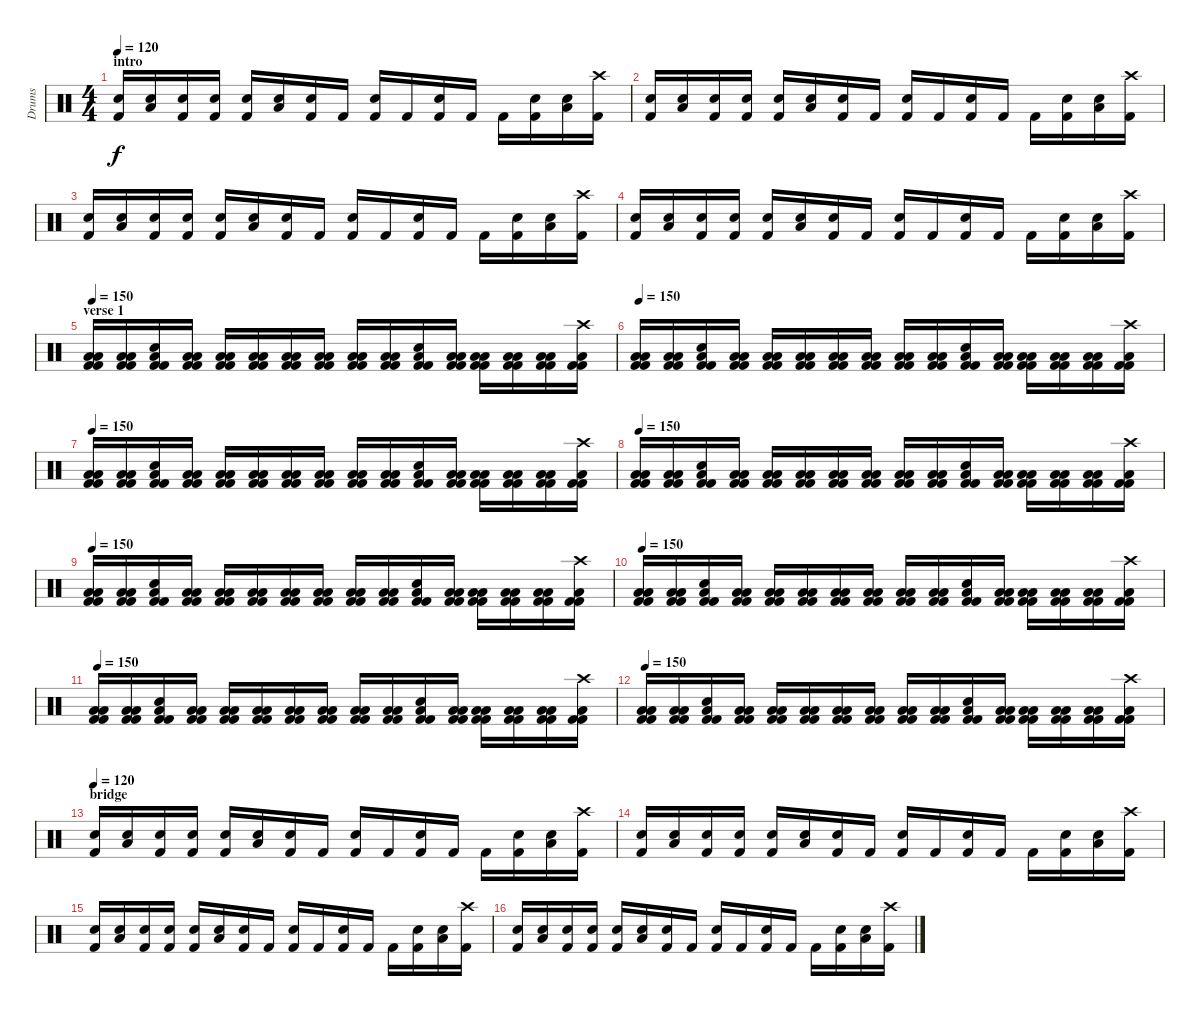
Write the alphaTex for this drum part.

\track ("Drums" "Drums") {instrument percussion}
\staff {score}
\articulation defaults
\ts (4 4)
\section ("" "intro")
\tempo 120
\clef neutral
\ks c
("Snare (hit) 2" "Kick (hit) 2").16{dy f} ("Snare (hit) 2" "Low Tom (hit)").16 ("Snare (hit) 2" "Kick (hit) 2").16 ("Snare (hit) 2" "Kick (hit) 2").16 ("Snare (hit) 2" "Kick (hit) 2").16 ("Snare (hit) 2" "Low Tom (hit)").16 ("Snare (hit) 2" "Kick (hit) 2").16 "Kick (hit) 2".16 ("Kick (hit) 2" "Snare (hit) 2").16 "Kick (hit) 2".16 ("Kick (hit) 2" "Snare (hit) 2").16 "Kick (hit) 2".16 "Kick (hit) 2".16 ("Kick (hit) 2" "Snare (hit) 2").16 ("Snare (hit) 2" "Low Tom (hit)").16 ("Kick (hit) 2" "Crash high (hit)").16 |
("Snare (hit) 2" "Kick (hit) 2").16 ("Snare (hit) 2" "Low Tom (hit)").16 ("Snare (hit) 2" "Kick (hit) 2").16 ("Snare (hit) 2" "Kick (hit) 2").16 ("Snare (hit) 2" "Kick (hit) 2").16 ("Snare (hit) 2" "Low Tom (hit)").16 ("Snare (hit) 2" "Kick (hit) 2").16 "Kick (hit) 2".16 ("Kick (hit) 2" "Snare (hit) 2").16 "Kick (hit) 2".16 ("Kick (hit) 2" "Snare (hit) 2").16 "Kick (hit) 2".16 "Kick (hit) 2".16 ("Kick (hit) 2" "Snare (hit) 2").16 ("Snare (hit) 2" "Low Tom (hit)").16 ("Kick (hit) 2" "Crash high (hit)").16 |
("Snare (hit) 2" "Kick (hit) 2").16 ("Snare (hit) 2" "Low Tom (hit)").16 ("Snare (hit) 2" "Kick (hit) 2").16 ("Snare (hit) 2" "Kick (hit) 2").16 ("Snare (hit) 2" "Kick (hit) 2").16 ("Snare (hit) 2" "Low Tom (hit)").16 ("Snare (hit) 2" "Kick (hit) 2").16 "Kick (hit) 2".16 ("Kick (hit) 2" "Snare (hit) 2").16 "Kick (hit) 2".16 ("Kick (hit) 2" "Snare (hit) 2").16 "Kick (hit) 2".16 "Kick (hit) 2".16 ("Kick (hit) 2" "Snare (hit) 2").16 ("Snare (hit) 2" "Low Tom (hit)").16 ("Kick (hit) 2" "Crash high (hit)").16 |
("Snare (hit) 2" "Kick (hit) 2").16 ("Snare (hit) 2" "Low Tom (hit)").16 ("Snare (hit) 2" "Kick (hit) 2").16 ("Snare (hit) 2" "Kick (hit) 2").16 ("Snare (hit) 2" "Kick (hit) 2").16 ("Snare (hit) 2" "Low Tom (hit)").16 ("Snare (hit) 2" "Kick (hit) 2").16 "Kick (hit) 2".16 ("Kick (hit) 2" "Snare (hit) 2").16 "Kick (hit) 2".16 ("Kick (hit) 2" "Snare (hit) 2").16 "Kick (hit) 2".16 "Kick (hit) 2".16 ("Kick (hit) 2" "Snare (hit) 2").16 ("Snare (hit) 2" "Low Tom (hit)").16 ("Kick (hit) 2" "Crash high (hit)").16 |
\section ("" "verse 1")
\tempo 150
("Kick (hit) 2" "Kick (hit) 2" "Low Tom (hit)" "Low Tom (hit)").16 ("Kick (hit) 2" "Kick (hit) 2" "Low Tom (hit)" "Low Tom (hit)").16 ("Kick (hit) 2" "Kick (hit) 2" "Snare (hit) 2" "Low Tom (hit)").16 ("Kick (hit) 2" "Kick (hit) 2" "Low Tom (hit)" "Low Tom (hit)").16 ("Kick (hit) 2" "Kick (hit) 2" "Low Tom (hit)" "Low Tom (hit)").16 ("Kick (hit) 2" "Kick (hit) 2" "Low Tom (hit)" "Low Tom (hit)").16 ("Kick (hit) 2" "Kick (hit) 2" "Low Tom (hit)" "Low Tom (hit)").16 ("Kick (hit) 2" "Kick (hit) 2" "Low Tom (hit)" "Low Tom (hit)").16 ("Kick (hit) 2" "Kick (hit) 2" "Low Tom (hit)" "Low Tom (hit)").16 ("Kick (hit) 2" "Kick (hit) 2" "Low Tom (hit)" "Low Tom (hit)").16 ("Kick (hit) 2" "Kick (hit) 2" "Snare (hit) 2" "Low Tom (hit)").16 ("Kick (hit) 2" "Kick (hit) 2" "Low Tom (hit)" "Low Tom (hit)").16 ("Kick (hit) 2" "Kick (hit) 2" "Low Tom (hit)" "Low Tom (hit)").16 ("Kick (hit) 2" "Kick (hit) 2" "Low Tom (hit)" "Low Tom (hit)").16 ("Kick (hit) 2" "Kick (hit) 2" "Low Tom (hit)" "Low Tom (hit)").16 ("Kick (hit) 2" "Kick (hit) 2" "Crash high (hit)" "Low Tom (hit)").16 |
\tempo 150
("Kick (hit) 2" "Kick (hit) 2" "Low Tom (hit)" "Low Tom (hit)").16 ("Kick (hit) 2" "Kick (hit) 2" "Low Tom (hit)" "Low Tom (hit)").16 ("Kick (hit) 2" "Kick (hit) 2" "Snare (hit) 2" "Low Tom (hit)").16 ("Kick (hit) 2" "Kick (hit) 2" "Low Tom (hit)" "Low Tom (hit)").16 ("Kick (hit) 2" "Kick (hit) 2" "Low Tom (hit)" "Low Tom (hit)").16 ("Kick (hit) 2" "Kick (hit) 2" "Low Tom (hit)" "Low Tom (hit)").16 ("Kick (hit) 2" "Kick (hit) 2" "Low Tom (hit)" "Low Tom (hit)").16 ("Kick (hit) 2" "Kick (hit) 2" "Low Tom (hit)" "Low Tom (hit)").16 ("Kick (hit) 2" "Kick (hit) 2" "Low Tom (hit)" "Low Tom (hit)").16 ("Kick (hit) 2" "Kick (hit) 2" "Low Tom (hit)" "Low Tom (hit)").16 ("Kick (hit) 2" "Kick (hit) 2" "Snare (hit) 2" "Low Tom (hit)").16 ("Kick (hit) 2" "Kick (hit) 2" "Low Tom (hit)" "Low Tom (hit)").16 ("Kick (hit) 2" "Kick (hit) 2" "Low Tom (hit)" "Low Tom (hit)").16 ("Kick (hit) 2" "Kick (hit) 2" "Low Tom (hit)" "Low Tom (hit)").16 ("Kick (hit) 2" "Kick (hit) 2" "Low Tom (hit)" "Low Tom (hit)").16 ("Kick (hit) 2" "Kick (hit) 2" "Crash high (hit)" "Low Tom (hit)").16 |
\tempo 150
("Kick (hit) 2" "Kick (hit) 2" "Low Tom (hit)" "Low Tom (hit)").16 ("Kick (hit) 2" "Kick (hit) 2" "Low Tom (hit)" "Low Tom (hit)").16 ("Kick (hit) 2" "Kick (hit) 2" "Snare (hit) 2" "Low Tom (hit)").16 ("Kick (hit) 2" "Kick (hit) 2" "Low Tom (hit)" "Low Tom (hit)").16 ("Kick (hit) 2" "Kick (hit) 2" "Low Tom (hit)" "Low Tom (hit)").16 ("Kick (hit) 2" "Kick (hit) 2" "Low Tom (hit)" "Low Tom (hit)").16 ("Kick (hit) 2" "Kick (hit) 2" "Low Tom (hit)" "Low Tom (hit)").16 ("Kick (hit) 2" "Kick (hit) 2" "Low Tom (hit)" "Low Tom (hit)").16 ("Kick (hit) 2" "Kick (hit) 2" "Low Tom (hit)" "Low Tom (hit)").16 ("Kick (hit) 2" "Kick (hit) 2" "Low Tom (hit)" "Low Tom (hit)").16 ("Kick (hit) 2" "Kick (hit) 2" "Snare (hit) 2" "Low Tom (hit)").16 ("Kick (hit) 2" "Kick (hit) 2" "Low Tom (hit)" "Low Tom (hit)").16 ("Kick (hit) 2" "Kick (hit) 2" "Low Tom (hit)" "Low Tom (hit)").16 ("Kick (hit) 2" "Kick (hit) 2" "Low Tom (hit)" "Low Tom (hit)").16 ("Kick (hit) 2" "Kick (hit) 2" "Low Tom (hit)" "Low Tom (hit)").16 ("Kick (hit) 2" "Kick (hit) 2" "Crash high (hit)" "Low Tom (hit)").16 |
\tempo 150
("Kick (hit) 2" "Kick (hit) 2" "Low Tom (hit)" "Low Tom (hit)").16 ("Kick (hit) 2" "Kick (hit) 2" "Low Tom (hit)" "Low Tom (hit)").16 ("Kick (hit) 2" "Kick (hit) 2" "Snare (hit) 2" "Low Tom (hit)").16 ("Kick (hit) 2" "Kick (hit) 2" "Low Tom (hit)" "Low Tom (hit)").16 ("Kick (hit) 2" "Kick (hit) 2" "Low Tom (hit)" "Low Tom (hit)").16 ("Kick (hit) 2" "Kick (hit) 2" "Low Tom (hit)" "Low Tom (hit)").16 ("Kick (hit) 2" "Kick (hit) 2" "Low Tom (hit)" "Low Tom (hit)").16 ("Kick (hit) 2" "Kick (hit) 2" "Low Tom (hit)" "Low Tom (hit)").16 ("Kick (hit) 2" "Kick (hit) 2" "Low Tom (hit)" "Low Tom (hit)").16 ("Kick (hit) 2" "Kick (hit) 2" "Low Tom (hit)" "Low Tom (hit)").16 ("Kick (hit) 2" "Kick (hit) 2" "Snare (hit) 2" "Low Tom (hit)").16 ("Kick (hit) 2" "Kick (hit) 2" "Low Tom (hit)" "Low Tom (hit)").16 ("Kick (hit) 2" "Kick (hit) 2" "Low Tom (hit)" "Low Tom (hit)").16 ("Kick (hit) 2" "Kick (hit) 2" "Low Tom (hit)" "Low Tom (hit)").16 ("Kick (hit) 2" "Kick (hit) 2" "Low Tom (hit)" "Low Tom (hit)").16 ("Kick (hit) 2" "Kick (hit) 2" "Crash high (hit)" "Low Tom (hit)").16 |
\tempo 150
("Kick (hit) 2" "Kick (hit) 2" "Low Tom (hit)" "Low Tom (hit)").16 ("Kick (hit) 2" "Kick (hit) 2" "Low Tom (hit)" "Low Tom (hit)").16 ("Kick (hit) 2" "Kick (hit) 2" "Snare (hit) 2" "Low Tom (hit)").16 ("Kick (hit) 2" "Kick (hit) 2" "Low Tom (hit)" "Low Tom (hit)").16 ("Kick (hit) 2" "Kick (hit) 2" "Low Tom (hit)" "Low Tom (hit)").16 ("Kick (hit) 2" "Kick (hit) 2" "Low Tom (hit)" "Low Tom (hit)").16 ("Kick (hit) 2" "Kick (hit) 2" "Low Tom (hit)" "Low Tom (hit)").16 ("Kick (hit) 2" "Kick (hit) 2" "Low Tom (hit)" "Low Tom (hit)").16 ("Kick (hit) 2" "Kick (hit) 2" "Low Tom (hit)" "Low Tom (hit)").16 ("Kick (hit) 2" "Kick (hit) 2" "Low Tom (hit)" "Low Tom (hit)").16 ("Kick (hit) 2" "Kick (hit) 2" "Snare (hit) 2" "Low Tom (hit)").16 ("Kick (hit) 2" "Kick (hit) 2" "Low Tom (hit)" "Low Tom (hit)").16 ("Kick (hit) 2" "Kick (hit) 2" "Low Tom (hit)" "Low Tom (hit)").16 ("Kick (hit) 2" "Kick (hit) 2" "Low Tom (hit)" "Low Tom (hit)").16 ("Kick (hit) 2" "Kick (hit) 2" "Low Tom (hit)" "Low Tom (hit)").16 ("Kick (hit) 2" "Kick (hit) 2" "Crash high (hit)" "Low Tom (hit)").16 |
\tempo 150
("Kick (hit) 2" "Kick (hit) 2" "Low Tom (hit)" "Low Tom (hit)").16 ("Kick (hit) 2" "Kick (hit) 2" "Low Tom (hit)" "Low Tom (hit)").16 ("Kick (hit) 2" "Kick (hit) 2" "Snare (hit) 2" "Low Tom (hit)").16 ("Kick (hit) 2" "Kick (hit) 2" "Low Tom (hit)" "Low Tom (hit)").16 ("Kick (hit) 2" "Kick (hit) 2" "Low Tom (hit)" "Low Tom (hit)").16 ("Kick (hit) 2" "Kick (hit) 2" "Low Tom (hit)" "Low Tom (hit)").16 ("Kick (hit) 2" "Kick (hit) 2" "Low Tom (hit)" "Low Tom (hit)").16 ("Kick (hit) 2" "Kick (hit) 2" "Low Tom (hit)" "Low Tom (hit)").16 ("Kick (hit) 2" "Kick (hit) 2" "Low Tom (hit)" "Low Tom (hit)").16 ("Kick (hit) 2" "Kick (hit) 2" "Low Tom (hit)" "Low Tom (hit)").16 ("Kick (hit) 2" "Kick (hit) 2" "Snare (hit) 2" "Low Tom (hit)").16 ("Kick (hit) 2" "Kick (hit) 2" "Low Tom (hit)" "Low Tom (hit)").16 ("Kick (hit) 2" "Kick (hit) 2" "Low Tom (hit)" "Low Tom (hit)").16 ("Kick (hit) 2" "Kick (hit) 2" "Low Tom (hit)" "Low Tom (hit)").16 ("Kick (hit) 2" "Kick (hit) 2" "Low Tom (hit)" "Low Tom (hit)").16 ("Kick (hit) 2" "Kick (hit) 2" "Crash high (hit)" "Low Tom (hit)").16 |
\tempo 150
("Kick (hit) 2" "Kick (hit) 2" "Low Tom (hit)" "Low Tom (hit)").16 ("Kick (hit) 2" "Kick (hit) 2" "Low Tom (hit)" "Low Tom (hit)").16 ("Kick (hit) 2" "Kick (hit) 2" "Snare (hit) 2" "Low Tom (hit)").16 ("Kick (hit) 2" "Kick (hit) 2" "Low Tom (hit)" "Low Tom (hit)").16 ("Kick (hit) 2" "Kick (hit) 2" "Low Tom (hit)" "Low Tom (hit)").16 ("Kick (hit) 2" "Kick (hit) 2" "Low Tom (hit)" "Low Tom (hit)").16 ("Kick (hit) 2" "Kick (hit) 2" "Low Tom (hit)" "Low Tom (hit)").16 ("Kick (hit) 2" "Kick (hit) 2" "Low Tom (hit)" "Low Tom (hit)").16 ("Kick (hit) 2" "Kick (hit) 2" "Low Tom (hit)" "Low Tom (hit)").16 ("Kick (hit) 2" "Kick (hit) 2" "Low Tom (hit)" "Low Tom (hit)").16 ("Kick (hit) 2" "Kick (hit) 2" "Snare (hit) 2" "Low Tom (hit)").16 ("Kick (hit) 2" "Kick (hit) 2" "Low Tom (hit)" "Low Tom (hit)").16 ("Kick (hit) 2" "Kick (hit) 2" "Low Tom (hit)" "Low Tom (hit)").16 ("Kick (hit) 2" "Kick (hit) 2" "Low Tom (hit)" "Low Tom (hit)").16 ("Kick (hit) 2" "Kick (hit) 2" "Low Tom (hit)" "Low Tom (hit)").16 ("Kick (hit) 2" "Kick (hit) 2" "Crash high (hit)" "Low Tom (hit)").16 |
\tempo 150
("Kick (hit) 2" "Kick (hit) 2" "Low Tom (hit)" "Low Tom (hit)").16 ("Kick (hit) 2" "Kick (hit) 2" "Low Tom (hit)" "Low Tom (hit)").16 ("Kick (hit) 2" "Kick (hit) 2" "Snare (hit) 2" "Low Tom (hit)").16 ("Kick (hit) 2" "Kick (hit) 2" "Low Tom (hit)" "Low Tom (hit)").16 ("Kick (hit) 2" "Kick (hit) 2" "Low Tom (hit)" "Low Tom (hit)").16 ("Kick (hit) 2" "Kick (hit) 2" "Low Tom (hit)" "Low Tom (hit)").16 ("Kick (hit) 2" "Kick (hit) 2" "Low Tom (hit)" "Low Tom (hit)").16 ("Kick (hit) 2" "Kick (hit) 2" "Low Tom (hit)" "Low Tom (hit)").16 ("Kick (hit) 2" "Kick (hit) 2" "Low Tom (hit)" "Low Tom (hit)").16 ("Kick (hit) 2" "Kick (hit) 2" "Low Tom (hit)" "Low Tom (hit)").16 ("Kick (hit) 2" "Kick (hit) 2" "Snare (hit) 2" "Low Tom (hit)").16 ("Kick (hit) 2" "Kick (hit) 2" "Low Tom (hit)" "Low Tom (hit)").16 ("Kick (hit) 2" "Kick (hit) 2" "Low Tom (hit)" "Low Tom (hit)").16 ("Kick (hit) 2" "Kick (hit) 2" "Low Tom (hit)" "Low Tom (hit)").16 ("Kick (hit) 2" "Kick (hit) 2" "Low Tom (hit)" "Low Tom (hit)").16 ("Kick (hit) 2" "Kick (hit) 2" "Crash high (hit)" "Low Tom (hit)").16 |
\section ("" "bridge")
\tempo 120
("Snare (hit) 2" "Kick (hit) 2").16 ("Snare (hit) 2" "Low Tom (hit)").16 ("Snare (hit) 2" "Kick (hit) 2").16 ("Snare (hit) 2" "Kick (hit) 2").16 ("Snare (hit) 2" "Kick (hit) 2").16 ("Snare (hit) 2" "Low Tom (hit)").16 ("Snare (hit) 2" "Kick (hit) 2").16 "Kick (hit) 2".16 ("Kick (hit) 2" "Snare (hit) 2").16 "Kick (hit) 2".16 ("Kick (hit) 2" "Snare (hit) 2").16 "Kick (hit) 2".16 "Kick (hit) 2".16 ("Kick (hit) 2" "Snare (hit) 2").16 ("Snare (hit) 2" "Low Tom (hit)").16 ("Kick (hit) 2" "Crash high (hit)").16 |
("Snare (hit) 2" "Kick (hit) 2").16 ("Snare (hit) 2" "Low Tom (hit)").16 ("Snare (hit) 2" "Kick (hit) 2").16 ("Snare (hit) 2" "Kick (hit) 2").16 ("Snare (hit) 2" "Kick (hit) 2").16 ("Snare (hit) 2" "Low Tom (hit)").16 ("Snare (hit) 2" "Kick (hit) 2").16 "Kick (hit) 2".16 ("Kick (hit) 2" "Snare (hit) 2").16 "Kick (hit) 2".16 ("Kick (hit) 2" "Snare (hit) 2").16 "Kick (hit) 2".16 "Kick (hit) 2".16 ("Kick (hit) 2" "Snare (hit) 2").16 ("Snare (hit) 2" "Low Tom (hit)").16 ("Kick (hit) 2" "Crash high (hit)").16 |
("Snare (hit) 2" "Kick (hit) 2").16 ("Snare (hit) 2" "Low Tom (hit)").16 ("Snare (hit) 2" "Kick (hit) 2").16 ("Snare (hit) 2" "Kick (hit) 2").16 ("Snare (hit) 2" "Kick (hit) 2").16 ("Snare (hit) 2" "Low Tom (hit)").16 ("Snare (hit) 2" "Kick (hit) 2").16 "Kick (hit) 2".16 ("Kick (hit) 2" "Snare (hit) 2").16 "Kick (hit) 2".16 ("Kick (hit) 2" "Snare (hit) 2").16 "Kick (hit) 2".16 "Kick (hit) 2".16 ("Kick (hit) 2" "Snare (hit) 2").16 ("Snare (hit) 2" "Low Tom (hit)").16 ("Kick (hit) 2" "Crash high (hit)").16 |
("Snare (hit) 2" "Kick (hit) 2").16 ("Snare (hit) 2" "Low Tom (hit)").16 ("Snare (hit) 2" "Kick (hit) 2").16 ("Snare (hit) 2" "Kick (hit) 2").16 ("Snare (hit) 2" "Kick (hit) 2").16 ("Snare (hit) 2" "Low Tom (hit)").16 ("Snare (hit) 2" "Kick (hit) 2").16 "Kick (hit) 2".16 ("Kick (hit) 2" "Snare (hit) 2").16 "Kick (hit) 2".16 ("Kick (hit) 2" "Snare (hit) 2").16 "Kick (hit) 2".16 "Kick (hit) 2".16 ("Kick (hit) 2" "Snare (hit) 2").16 ("Snare (hit) 2" "Low Tom (hit)").16 ("Kick (hit) 2" "Crash high (hit)").16
